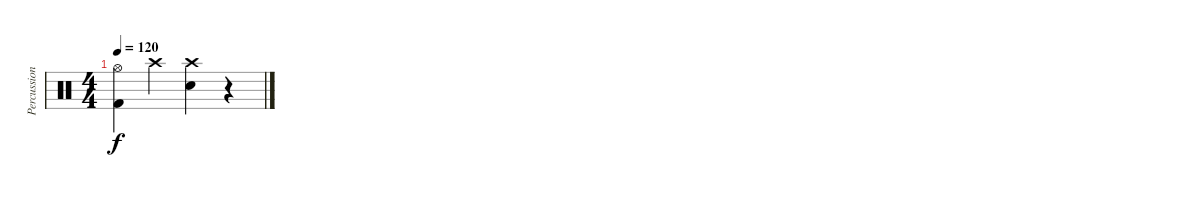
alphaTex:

\track ("Percussioni" "Percussion") {instrument percussion}
\staff {score}
\articulation defaults
\ts (4 4)
\tempo 120
\clef neutral
\ks c
("Hi-Hat (open)" "Kick (hit) 2").4{dy f} "Crash high (hit)".4 ("Crash high (hit)" "Snare (hit) 2").4 r.4
